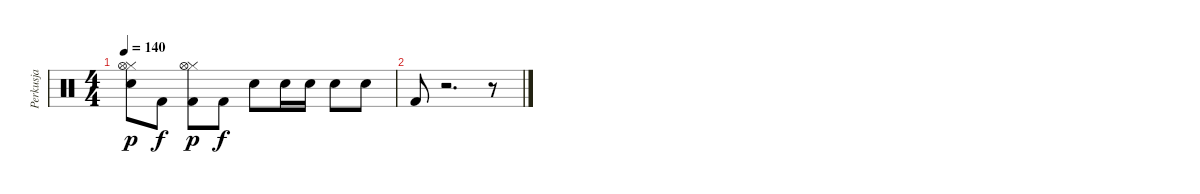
\track ("Perkusja" "Perkusja") {instrument percussion}
\staff {score}
\articulation defaults
\ts (4 4)
\tempo 140
\clef neutral
\ks c
("Electric Snare (hit)" "Hi-Hat (closed)" "Hi-Hat (open)").8{dy p} "Kick (hit) 2".8{dy f} ("Kick (hit) 2" "Hi-Hat (closed)" "Hi-Hat (open)").8{dy p} "Kick (hit) 2".8{dy f} "Electric Snare (hit)".8 "Electric Snare (hit)".16 "Electric Snare (hit)".16 "Electric Snare (hit)".8 "Electric Snare (hit)".8 |
"Kick (hit) 2".8 r.2{d} r.8
